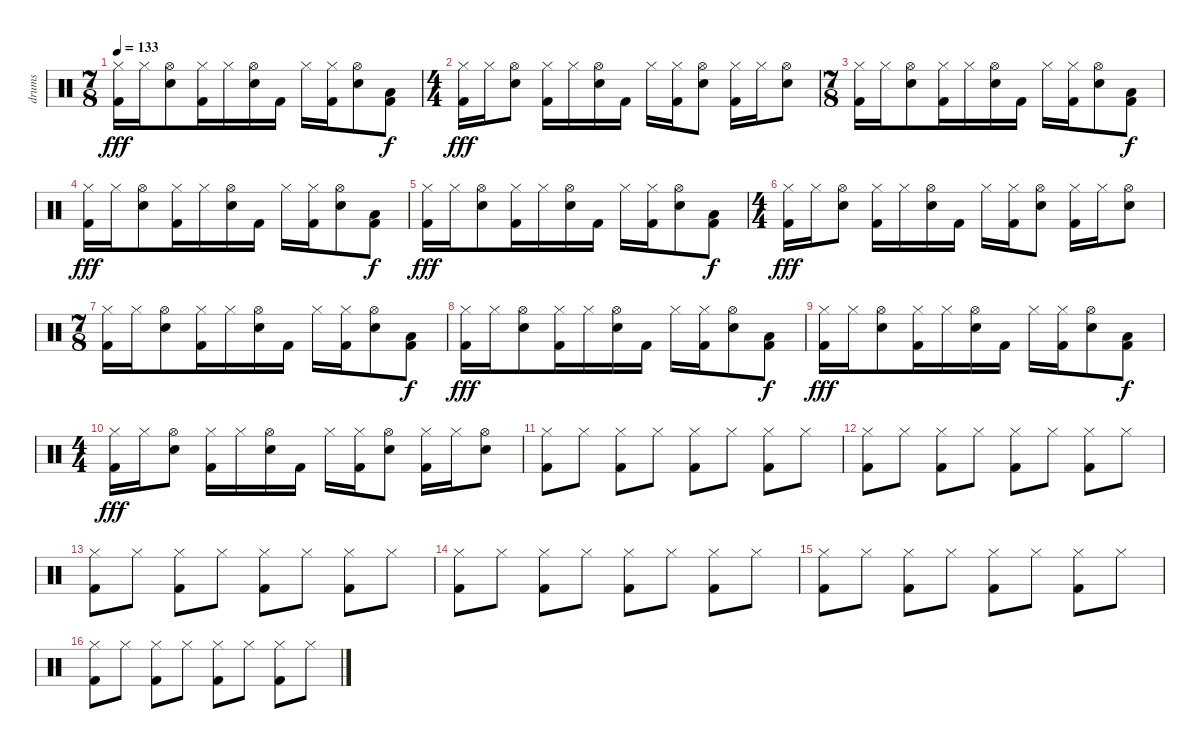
\track ("drums" "drums") {instrument percussion}
\staff {score}
\articulation defaults
\ts (7 8)
\tempo 133
\clef neutral
\ks c
("Kick (hit) 2" "Hi-Hat (closed)").16{dy fff} "Hi-Hat (closed)".16 ("Hi-Hat (open)" "Electric Snare (hit)").8 ("Kick (hit) 2" "Hi-Hat (closed)").16 "Hi-Hat (closed)".16 ("Hi-Hat (open)" "Electric Snare (hit)").16 "Kick (hit) 2".16 "Hi-Hat (closed)".16 ("Kick (hit) 2" "Hi-Hat (closed)").16 ("Hi-Hat (open)" "Electric Snare (hit)").8 ("Kick (hit) 2" "Low Floor Tom (hit)").8{dy f} |
\ts (4 4)
("Kick (hit) 2" "Hi-Hat (closed)").16{dy fff} "Hi-Hat (closed)".16 ("Hi-Hat (open)" "Electric Snare (hit)").8 ("Kick (hit) 2" "Hi-Hat (closed)").16 "Hi-Hat (closed)".16 ("Hi-Hat (open)" "Electric Snare (hit)").16 "Kick (hit) 2".16 "Hi-Hat (closed)".16 ("Kick (hit) 2" "Hi-Hat (closed)").16 ("Hi-Hat (open)" "Electric Snare (hit)").8 ("Hi-Hat (closed)" "Kick (hit) 2").16 "Hi-Hat (closed)".16 ("Hi-Hat (open)" "Electric Snare (hit)").8 |
\ts (7 8)
("Kick (hit) 2" "Hi-Hat (closed)").16 "Hi-Hat (closed)".16 ("Hi-Hat (open)" "Electric Snare (hit)").8 ("Kick (hit) 2" "Hi-Hat (closed)").16 "Hi-Hat (closed)".16 ("Hi-Hat (open)" "Electric Snare (hit)").16 "Kick (hit) 2".16 "Hi-Hat (closed)".16 ("Kick (hit) 2" "Hi-Hat (closed)").16 ("Hi-Hat (open)" "Electric Snare (hit)").8 ("Kick (hit) 2" "Low Floor Tom (hit)").8{dy f} |
("Kick (hit) 2" "Hi-Hat (closed)").16{dy fff} "Hi-Hat (closed)".16 ("Hi-Hat (open)" "Electric Snare (hit)").8 ("Kick (hit) 2" "Hi-Hat (closed)").16 "Hi-Hat (closed)".16 ("Hi-Hat (open)" "Electric Snare (hit)").16 "Kick (hit) 2".16 "Hi-Hat (closed)".16 ("Kick (hit) 2" "Hi-Hat (closed)").16 ("Hi-Hat (open)" "Electric Snare (hit)").8 ("Kick (hit) 2" "Low Floor Tom (hit)").8{dy f} |
("Kick (hit) 2" "Hi-Hat (closed)").16{dy fff} "Hi-Hat (closed)".16 ("Hi-Hat (open)" "Electric Snare (hit)").8 ("Kick (hit) 2" "Hi-Hat (closed)").16 "Hi-Hat (closed)".16 ("Hi-Hat (open)" "Electric Snare (hit)").16 "Kick (hit) 2".16 "Hi-Hat (closed)".16 ("Kick (hit) 2" "Hi-Hat (closed)").16 ("Hi-Hat (open)" "Electric Snare (hit)").8 ("Kick (hit) 2" "Low Floor Tom (hit)").8{dy f} |
\ts (4 4)
("Kick (hit) 2" "Hi-Hat (closed)").16{dy fff} "Hi-Hat (closed)".16 ("Hi-Hat (open)" "Electric Snare (hit)").8 ("Kick (hit) 2" "Hi-Hat (closed)").16 "Hi-Hat (closed)".16 ("Hi-Hat (open)" "Electric Snare (hit)").16 "Kick (hit) 2".16 "Hi-Hat (closed)".16 ("Kick (hit) 2" "Hi-Hat (closed)").16 ("Hi-Hat (open)" "Electric Snare (hit)").8 ("Hi-Hat (closed)" "Kick (hit) 2").16 "Hi-Hat (closed)".16 ("Hi-Hat (open)" "Electric Snare (hit)").8 |
\ts (7 8)
("Kick (hit) 2" "Hi-Hat (closed)").16 "Hi-Hat (closed)".16 ("Hi-Hat (open)" "Electric Snare (hit)").8 ("Kick (hit) 2" "Hi-Hat (closed)").16 "Hi-Hat (closed)".16 ("Hi-Hat (open)" "Electric Snare (hit)").16 "Kick (hit) 2".16 "Hi-Hat (closed)".16 ("Kick (hit) 2" "Hi-Hat (closed)").16 ("Hi-Hat (open)" "Electric Snare (hit)").8 ("Kick (hit) 2" "Low Floor Tom (hit)").8{dy f} |
("Kick (hit) 2" "Hi-Hat (closed)").16{dy fff} "Hi-Hat (closed)".16 ("Hi-Hat (open)" "Electric Snare (hit)").8 ("Kick (hit) 2" "Hi-Hat (closed)").16 "Hi-Hat (closed)".16 ("Hi-Hat (open)" "Electric Snare (hit)").16 "Kick (hit) 2".16 "Hi-Hat (closed)".16 ("Kick (hit) 2" "Hi-Hat (closed)").16 ("Hi-Hat (open)" "Electric Snare (hit)").8 ("Kick (hit) 2" "Low Floor Tom (hit)").8{dy f} |
("Kick (hit) 2" "Hi-Hat (closed)").16{dy fff} "Hi-Hat (closed)".16 ("Hi-Hat (open)" "Electric Snare (hit)").8 ("Kick (hit) 2" "Hi-Hat (closed)").16 "Hi-Hat (closed)".16 ("Hi-Hat (open)" "Electric Snare (hit)").16 "Kick (hit) 2".16 "Hi-Hat (closed)".16 ("Kick (hit) 2" "Hi-Hat (closed)").16 ("Hi-Hat (open)" "Electric Snare (hit)").8 ("Kick (hit) 2" "Low Floor Tom (hit)").8{dy f} |
\ts (4 4)
("Kick (hit) 2" "Hi-Hat (closed)").16{dy fff} "Hi-Hat (closed)".16 ("Hi-Hat (open)" "Electric Snare (hit)").8 ("Kick (hit) 2" "Hi-Hat (closed)").16 "Hi-Hat (closed)".16 ("Hi-Hat (open)" "Electric Snare (hit)").16 "Kick (hit) 2".16 "Hi-Hat (closed)".16 ("Kick (hit) 2" "Hi-Hat (closed)").16 ("Hi-Hat (open)" "Electric Snare (hit)").8 ("Hi-Hat (closed)" "Kick (hit) 2").16 "Hi-Hat (closed)".16 ("Hi-Hat (open)" "Electric Snare (hit)").8 |
("Kick (hit) 2" "Hi-Hat (closed)").8 "Hi-Hat (closed)".8 ("Kick (hit) 2" "Hi-Hat (closed)").8 "Hi-Hat (closed)".8 ("Kick (hit) 2" "Hi-Hat (closed)").8 "Hi-Hat (closed)".8 ("Kick (hit) 2" "Hi-Hat (closed)").8 "Hi-Hat (closed)".8 |
("Kick (hit) 2" "Hi-Hat (closed)").8 "Hi-Hat (closed)".8 ("Kick (hit) 2" "Hi-Hat (closed)").8 "Hi-Hat (closed)".8 ("Kick (hit) 2" "Hi-Hat (closed)").8 "Hi-Hat (closed)".8 ("Kick (hit) 2" "Hi-Hat (closed)").8 "Hi-Hat (closed)".8 |
("Kick (hit) 2" "Hi-Hat (closed)").8 "Hi-Hat (closed)".8 ("Kick (hit) 2" "Hi-Hat (closed)").8 "Hi-Hat (closed)".8 ("Kick (hit) 2" "Hi-Hat (closed)").8 "Hi-Hat (closed)".8 ("Kick (hit) 2" "Hi-Hat (closed)").8 "Hi-Hat (closed)".8 |
("Kick (hit) 2" "Hi-Hat (closed)").8 "Hi-Hat (closed)".8 ("Kick (hit) 2" "Hi-Hat (closed)").8 "Hi-Hat (closed)".8 ("Kick (hit) 2" "Hi-Hat (closed)").8 "Hi-Hat (closed)".8 ("Kick (hit) 2" "Hi-Hat (closed)").8 "Hi-Hat (closed)".8 |
("Kick (hit) 2" "Hi-Hat (closed)").8 "Hi-Hat (closed)".8 ("Kick (hit) 2" "Hi-Hat (closed)").8 "Hi-Hat (closed)".8 ("Kick (hit) 2" "Hi-Hat (closed)").8 "Hi-Hat (closed)".8 ("Kick (hit) 2" "Hi-Hat (closed)").8 "Hi-Hat (closed)".8 |
("Kick (hit) 2" "Hi-Hat (closed)").8 "Hi-Hat (closed)".8 ("Kick (hit) 2" "Hi-Hat (closed)").8 "Hi-Hat (closed)".8 ("Kick (hit) 2" "Hi-Hat (closed)").8 "Hi-Hat (closed)".8 ("Kick (hit) 2" "Hi-Hat (closed)").8 "Hi-Hat (closed)".8
